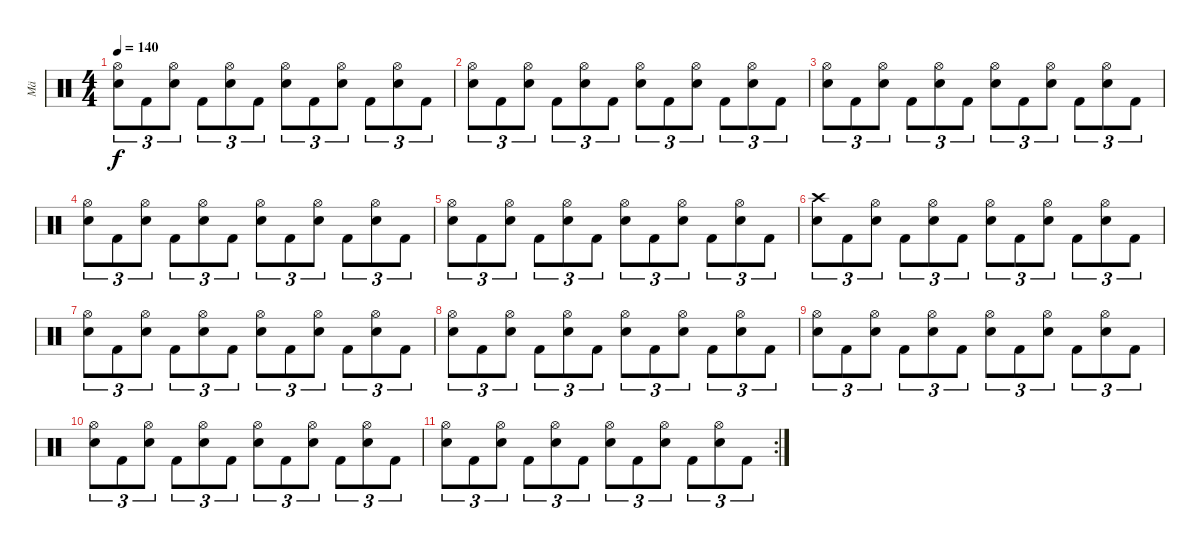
\track ("Mä" "Mä") {instrument percussion}
\staff {score}
\articulation defaults
\ts (4 4)
\tempo 140
\clef neutral
\ks c
("Hi-Hat (open)" "Snare (hit) 2").8{tu (3 2) dy f} "Kick (hit) 2".8{tu (3 2)} ("Hi-Hat (open)" "Snare (hit) 2").8{tu (3 2)} "Kick (hit) 2".8{tu (3 2)} ("Hi-Hat (open)" "Snare (hit) 2").8{tu (3 2)} "Kick (hit) 2".8{tu (3 2)} ("Hi-Hat (open)" "Snare (hit) 2").8{tu (3 2)} "Kick (hit) 2".8{tu (3 2)} ("Hi-Hat (open)" "Snare (hit) 2").8{tu (3 2)} "Kick (hit) 2".8{tu (3 2)} ("Hi-Hat (open)" "Snare (hit) 2").8{tu (3 2)} "Kick (hit) 2".8{tu (3 2)} |
("Hi-Hat (open)" "Snare (hit) 2").8{tu (3 2)} "Kick (hit) 2".8{tu (3 2)} ("Hi-Hat (open)" "Snare (hit) 2").8{tu (3 2)} "Kick (hit) 2".8{tu (3 2)} ("Hi-Hat (open)" "Snare (hit) 2").8{tu (3 2)} "Kick (hit) 2".8{tu (3 2)} ("Hi-Hat (open)" "Snare (hit) 2").8{tu (3 2)} "Kick (hit) 2".8{tu (3 2)} ("Hi-Hat (open)" "Snare (hit) 2").8{tu (3 2)} "Kick (hit) 2".8{tu (3 2)} ("Hi-Hat (open)" "Snare (hit) 2").8{tu (3 2)} "Kick (hit) 2".8{tu (3 2)} |
("Hi-Hat (open)" "Snare (hit) 2").8{tu (3 2)} "Kick (hit) 2".8{tu (3 2)} ("Hi-Hat (open)" "Snare (hit) 2").8{tu (3 2)} "Kick (hit) 2".8{tu (3 2)} ("Hi-Hat (open)" "Snare (hit) 2").8{tu (3 2)} "Kick (hit) 2".8{tu (3 2)} ("Hi-Hat (open)" "Snare (hit) 2").8{tu (3 2)} "Kick (hit) 2".8{tu (3 2)} ("Hi-Hat (open)" "Snare (hit) 2").8{tu (3 2)} "Kick (hit) 2".8{tu (3 2)} ("Hi-Hat (open)" "Snare (hit) 2").8{tu (3 2)} "Kick (hit) 2".8{tu (3 2)} |
("Hi-Hat (open)" "Snare (hit) 2").8{tu (3 2)} "Kick (hit) 2".8{tu (3 2)} ("Hi-Hat (open)" "Snare (hit) 2").8{tu (3 2)} "Kick (hit) 2".8{tu (3 2)} ("Hi-Hat (open)" "Snare (hit) 2").8{tu (3 2)} "Kick (hit) 2".8{tu (3 2)} ("Hi-Hat (open)" "Snare (hit) 2").8{tu (3 2)} "Kick (hit) 2".8{tu (3 2)} ("Hi-Hat (open)" "Snare (hit) 2").8{tu (3 2)} "Kick (hit) 2".8{tu (3 2)} ("Hi-Hat (open)" "Snare (hit) 2").8{tu (3 2)} "Kick (hit) 2".8{tu (3 2)} |
("Hi-Hat (open)" "Snare (hit) 2").8{tu (3 2)} "Kick (hit) 2".8{tu (3 2)} ("Hi-Hat (open)" "Snare (hit) 2").8{tu (3 2)} "Kick (hit) 2".8{tu (3 2)} ("Hi-Hat (open)" "Snare (hit) 2").8{tu (3 2)} "Kick (hit) 2".8{tu (3 2)} ("Hi-Hat (open)" "Snare (hit) 2").8{tu (3 2)} "Kick (hit) 2".8{tu (3 2)} ("Hi-Hat (open)" "Snare (hit) 2").8{tu (3 2)} "Kick (hit) 2".8{tu (3 2)} ("Hi-Hat (open)" "Snare (hit) 2").8{tu (3 2)} "Kick (hit) 2".8{tu (3 2)} |
("Crash high (hit)" "Snare (hit) 2").8{tu (3 2)} "Kick (hit) 2".8{tu (3 2)} ("Hi-Hat (open)" "Snare (hit) 2").8{tu (3 2)} "Kick (hit) 2".8{tu (3 2)} ("Hi-Hat (open)" "Snare (hit) 2").8{tu (3 2)} "Kick (hit) 2".8{tu (3 2)} ("Hi-Hat (open)" "Snare (hit) 2").8{tu (3 2)} "Kick (hit) 2".8{tu (3 2)} ("Hi-Hat (open)" "Snare (hit) 2").8{tu (3 2)} "Kick (hit) 2".8{tu (3 2)} ("Hi-Hat (open)" "Snare (hit) 2").8{tu (3 2)} "Kick (hit) 2".8{tu (3 2)} |
("Hi-Hat (open)" "Snare (hit) 2").8{tu (3 2)} "Kick (hit) 2".8{tu (3 2)} ("Hi-Hat (open)" "Snare (hit) 2").8{tu (3 2)} "Kick (hit) 2".8{tu (3 2)} ("Hi-Hat (open)" "Snare (hit) 2").8{tu (3 2)} "Kick (hit) 2".8{tu (3 2)} ("Hi-Hat (open)" "Snare (hit) 2").8{tu (3 2)} "Kick (hit) 2".8{tu (3 2)} ("Hi-Hat (open)" "Snare (hit) 2").8{tu (3 2)} "Kick (hit) 2".8{tu (3 2)} ("Hi-Hat (open)" "Snare (hit) 2").8{tu (3 2)} "Kick (hit) 2".8{tu (3 2)} |
("Hi-Hat (open)" "Snare (hit) 2").8{tu (3 2)} "Kick (hit) 2".8{tu (3 2)} ("Hi-Hat (open)" "Snare (hit) 2").8{tu (3 2)} "Kick (hit) 2".8{tu (3 2)} ("Hi-Hat (open)" "Snare (hit) 2").8{tu (3 2)} "Kick (hit) 2".8{tu (3 2)} ("Hi-Hat (open)" "Snare (hit) 2").8{tu (3 2)} "Kick (hit) 2".8{tu (3 2)} ("Hi-Hat (open)" "Snare (hit) 2").8{tu (3 2)} "Kick (hit) 2".8{tu (3 2)} ("Hi-Hat (open)" "Snare (hit) 2").8{tu (3 2)} "Kick (hit) 2".8{tu (3 2)} |
("Hi-Hat (open)" "Snare (hit) 2").8{tu (3 2)} "Kick (hit) 2".8{tu (3 2)} ("Hi-Hat (open)" "Snare (hit) 2").8{tu (3 2)} "Kick (hit) 2".8{tu (3 2)} ("Hi-Hat (open)" "Snare (hit) 2").8{tu (3 2)} "Kick (hit) 2".8{tu (3 2)} ("Hi-Hat (open)" "Snare (hit) 2").8{tu (3 2)} "Kick (hit) 2".8{tu (3 2)} ("Hi-Hat (open)" "Snare (hit) 2").8{tu (3 2)} "Kick (hit) 2".8{tu (3 2)} ("Hi-Hat (open)" "Snare (hit) 2").8{tu (3 2)} "Kick (hit) 2".8{tu (3 2)} |
("Hi-Hat (open)" "Snare (hit) 2").8{tu (3 2)} "Kick (hit) 2".8{tu (3 2)} ("Hi-Hat (open)" "Snare (hit) 2").8{tu (3 2)} "Kick (hit) 2".8{tu (3 2)} ("Hi-Hat (open)" "Snare (hit) 2").8{tu (3 2)} "Kick (hit) 2".8{tu (3 2)} ("Hi-Hat (open)" "Snare (hit) 2").8{tu (3 2)} "Kick (hit) 2".8{tu (3 2)} ("Hi-Hat (open)" "Snare (hit) 2").8{tu (3 2)} "Kick (hit) 2".8{tu (3 2)} ("Hi-Hat (open)" "Snare (hit) 2").8{tu (3 2)} "Kick (hit) 2".8{tu (3 2)} |
\rc 2
("Hi-Hat (open)" "Snare (hit) 2").8{tu (3 2)} "Kick (hit) 2".8{tu (3 2)} ("Hi-Hat (open)" "Snare (hit) 2").8{tu (3 2)} "Kick (hit) 2".8{tu (3 2)} ("Hi-Hat (open)" "Snare (hit) 2").8{tu (3 2)} "Kick (hit) 2".8{tu (3 2)} ("Hi-Hat (open)" "Snare (hit) 2").8{tu (3 2)} "Kick (hit) 2".8{tu (3 2)} ("Hi-Hat (open)" "Snare (hit) 2").8{tu (3 2)} "Kick (hit) 2".8{tu (3 2)} ("Hi-Hat (open)" "Snare (hit) 2").8{tu (3 2)} "Kick (hit) 2".8{tu (3 2)}
